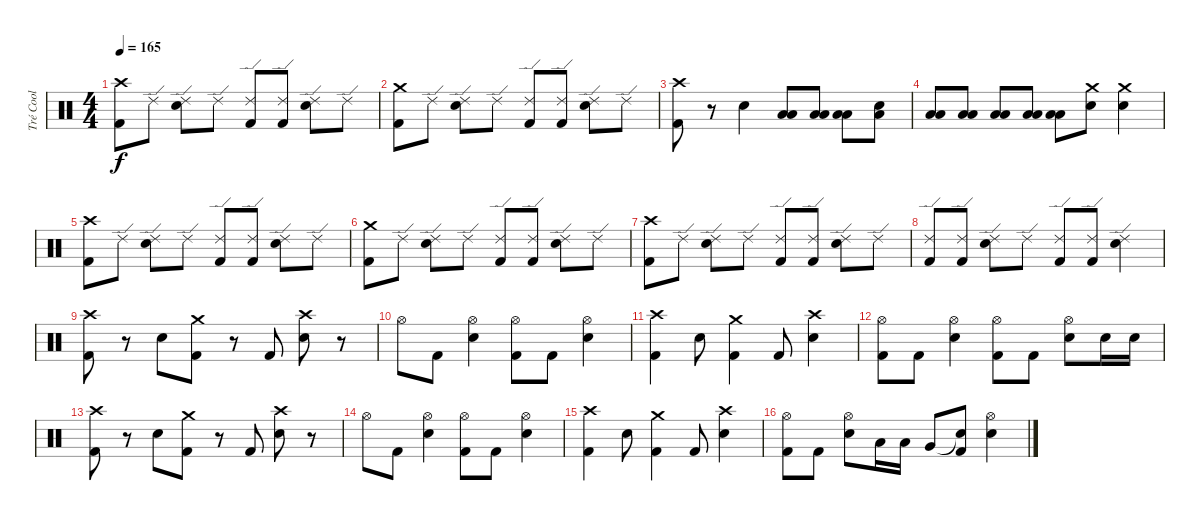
\track ("Tré Cool" "Tré Cool") {instrument percussion}
\staff {score}
\articulation defaults
\ts (4 4)
\tempo 165
\clef neutral
\ks c
("Crash high (hit)" "Kick (hit) 2").8{dy f} "Ride (edge) 2".8 ("Ride (edge) 2" "Electric Snare (hit)").8 "Ride (edge) 2".8 ("Ride (edge) 2" "Kick (hit) 2").8 ("Ride (edge) 2" "Kick (hit) 2").8 ("Ride (edge) 2" "Electric Snare (hit)").8 "Ride (edge) 2".8 |
("Crash medium (hit)" "Kick (hit) 2").8 "Ride (edge) 2".8 ("Ride (edge) 2" "Electric Snare (hit)").8 "Ride (edge) 2".8 ("Ride (edge) 2" "Kick (hit) 2").8 ("Ride (edge) 2" "Kick (hit) 2").8 ("Ride (edge) 2" "Electric Snare (hit)").8 "Ride (edge) 2".8 |
("Crash high (hit)" "Kick (hit) 2").8 r.8 "Electric Snare (hit)".4 ("Low Tom (hit)" "Low Floor Tom (hit)").8 ("Low Tom (hit)" "Low Floor Tom (hit)").8 ("Low Tom (hit)" "Low Floor Tom (hit)").8 ("Electric Snare (hit)" "Low Floor Tom (hit)").8 |
("Low Tom (hit)" "Low Floor Tom (hit)").8 ("Low Tom (hit)" "Low Floor Tom (hit)").8 ("Low Tom (hit)" "Low Floor Tom (hit)").8 ("Low Tom (hit)" "Low Floor Tom (hit)").8 ("Low Tom (hit)" "Low Floor Tom (hit)").8 ("Crash medium (hit)" "Electric Snare (hit)").8 ("Crash medium (hit)" "Electric Snare (hit)").4 |
("Crash high (hit)" "Kick (hit) 2").8 "Ride (edge) 2".8 ("Ride (edge) 2" "Electric Snare (hit)").8 "Ride (edge) 2".8 ("Ride (edge) 2" "Kick (hit) 2").8 ("Ride (edge) 2" "Kick (hit) 2").8 ("Ride (edge) 2" "Electric Snare (hit)").8 "Ride (edge) 2".8 |
("Crash medium (hit)" "Kick (hit) 2").8 "Ride (edge) 2".8 ("Ride (edge) 2" "Electric Snare (hit)").8 "Ride (edge) 2".8 ("Ride (edge) 2" "Kick (hit) 2").8 ("Ride (edge) 2" "Kick (hit) 2").8 ("Ride (edge) 2" "Electric Snare (hit)").8 "Ride (edge) 2".8 |
("Crash high (hit)" "Kick (hit) 2").8 "Ride (edge) 2".8 ("Ride (edge) 2" "Electric Snare (hit)").8 "Ride (edge) 2".8 ("Ride (edge) 2" "Kick (hit) 2").8 ("Ride (edge) 2" "Kick (hit) 2").8 ("Ride (edge) 2" "Electric Snare (hit)").8 "Ride (edge) 2".8 |
("Ride (edge) 2" "Kick (hit) 2").8 ("Ride (edge) 2" "Kick (hit) 2").8 ("Ride (edge) 2" "Electric Snare (hit)").8 "Ride (edge) 2".8 ("Ride (edge) 2" "Kick (hit) 2").8 ("Ride (edge) 2" "Kick (hit) 2").8 ("Ride (edge) 2" "Electric Snare (hit)").4 |
("Crash high (hit)" "Kick (hit) 2").8 r.8 "Electric Snare (hit)".8 ("Crash medium (hit)" "Kick (hit) 2").8 r.8 "Kick (hit) 2".8 ("Crash high (hit)" "Electric Snare (hit)").8 r.8 |
"Hi-Hat (open)".8 "Kick (hit) 2".8 ("Hi-Hat (open)" "Electric Snare (hit)").4 ("Hi-Hat (open)" "Kick (hit) 2").8 "Kick (hit) 2".8 ("Hi-Hat (open)" "Electric Snare (hit)").4 |
("Crash high (hit)" "Kick (hit) 2").4 "Electric Snare (hit)".8 ("Crash medium (hit)" "Kick (hit) 2").4 "Kick (hit) 2".8 ("Crash high (hit)" "Electric Snare (hit)").4 |
("Hi-Hat (open)" "Kick (hit) 2").8 "Kick (hit) 2".8 ("Hi-Hat (open)" "Electric Snare (hit)").4 ("Hi-Hat (open)" "Kick (hit) 2").8 "Kick (hit) 2".8 ("Hi-Hat (open)" "Electric Snare (hit)").8 "Electric Snare (hit)".16 "Electric Snare (hit)".16 |
("Crash high (hit)" "Kick (hit) 2").8 r.8 "Electric Snare (hit)".8 ("Crash medium (hit)" "Kick (hit) 2").8 r.8 "Kick (hit) 2".8 ("Crash high (hit)" "Electric Snare (hit)").8 r.8 |
"Hi-Hat (open)".8 "Kick (hit) 2".8 ("Hi-Hat (open)" "Electric Snare (hit)").4 ("Hi-Hat (open)" "Kick (hit) 2").8 "Kick (hit) 2".8 ("Hi-Hat (open)" "Electric Snare (hit)").4 |
("Crash high (hit)" "Kick (hit) 2").4 "Electric Snare (hit)".8 ("Crash medium (hit)" "Kick (hit) 2").4 "Kick (hit) 2".8 ("Crash high (hit)" "Electric Snare (hit)").4 |
("Hi-Hat (open)" "Kick (hit) 2").8 "Kick (hit) 2".8 ("Hi-Hat (open)" "Electric Snare (hit)").8 "Low Tom (hit)".16 "Low Tom (hit)".16 "Very Low Tom (hit)".8 ("Snare (hit)"{t} "Kick (hit) 2").8 ("Hi-Hat (open)" "Electric Snare (hit)").4
